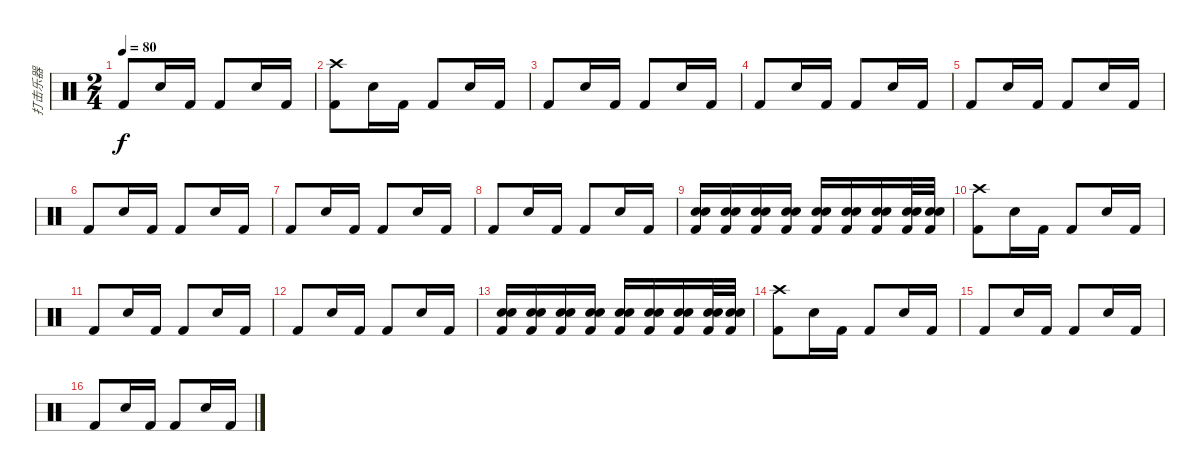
\track ("打击乐器" "打击乐器") {instrument percussion}
\staff {score}
\articulation defaults
\ts (2 4)
\tempo 80
\clef neutral
\ks c "Kick (hit) 2".8{dy f} "Electric Snare (hit)".16 "Kick (hit) 2".16 "Kick (hit) 2".8 "Electric Snare (hit)".16 "Kick (hit) 2".16
|
("Crash high (hit)" "Kick (hit) 2").8 "Electric Snare (hit)".16 "Kick (hit) 2".16 "Kick (hit) 2".8 "Electric Snare (hit)".16 "Kick (hit) 2".16 |
"Kick (hit) 2".8 "Electric Snare (hit)".16 "Kick (hit) 2".16 "Kick (hit) 2".8 "Electric Snare (hit)".16 "Kick (hit) 2".16 |
"Kick (hit) 2".8 "Electric Snare (hit)".16 "Kick (hit) 2".16 "Kick (hit) 2".8 "Electric Snare (hit)".16 "Kick (hit) 2".16 |
"Kick (hit) 2".8 "Electric Snare (hit)".16 "Kick (hit) 2".16 "Kick (hit) 2".8 "Electric Snare (hit)".16 "Kick (hit) 2".16 |
"Kick (hit) 2".8 "Electric Snare (hit)".16 "Kick (hit) 2".16 "Kick (hit) 2".8 "Electric Snare (hit)".16 "Kick (hit) 2".16 |
"Kick (hit) 2".8 "Electric Snare (hit)".16 "Kick (hit) 2".16 "Kick (hit) 2".8 "Electric Snare (hit)".16 "Kick (hit) 2".16 |
"Kick (hit) 2".8 "Electric Snare (hit)".16 "Kick (hit) 2".16 "Kick (hit) 2".8 "Electric Snare (hit)".16 "Kick (hit) 2".16 |
("Electric Snare (hit)" "Electric Snare (hit)" "Kick (hit) 2").16 ("Electric Snare (hit)" "Electric Snare (hit)" "Kick (hit) 2").16 ("Electric Snare (hit)" "Electric Snare (hit)" "Kick (hit) 2").16 ("Electric Snare (hit)" "Electric Snare (hit)" "Kick (hit) 2").16 ("Electric Snare (hit)" "Electric Snare (hit)" "Kick (hit) 2").16 ("Electric Snare (hit)" "Electric Snare (hit)" "Kick (hit) 2").16 ("Electric Snare (hit)" "Electric Snare (hit)" "Kick (hit) 2").16 ("Electric Snare (hit)" "Electric Snare (hit)" "Kick (hit) 2").32 ("Electric Snare (hit)" "Electric Snare (hit)" "Kick (hit) 2").32 |
("Crash high (hit)" "Kick (hit) 2").8 "Electric Snare (hit)".16 "Kick (hit) 2".16 "Kick (hit) 2".8 "Electric Snare (hit)".16 "Kick (hit) 2".16 |
"Kick (hit) 2".8 "Electric Snare (hit)".16 "Kick (hit) 2".16 "Kick (hit) 2".8 "Electric Snare (hit)".16 "Kick (hit) 2".16 |
"Kick (hit) 2".8 "Electric Snare (hit)".16 "Kick (hit) 2".16 "Kick (hit) 2".8 "Electric Snare (hit)".16 "Kick (hit) 2".16 |
("Electric Snare (hit)" "Electric Snare (hit)" "Kick (hit) 2").16 ("Electric Snare (hit)" "Electric Snare (hit)" "Kick (hit) 2").16 ("Electric Snare (hit)" "Electric Snare (hit)" "Kick (hit) 2").16 ("Electric Snare (hit)" "Electric Snare (hit)" "Kick (hit) 2").16 ("Electric Snare (hit)" "Electric Snare (hit)" "Kick (hit) 2").16 ("Electric Snare (hit)" "Electric Snare (hit)" "Kick (hit) 2").16 ("Electric Snare (hit)" "Electric Snare (hit)" "Kick (hit) 2").16 ("Electric Snare (hit)" "Electric Snare (hit)" "Kick (hit) 2").32 ("Electric Snare (hit)" "Electric Snare (hit)" "Kick (hit) 2").32 |
("Crash high (hit)" "Kick (hit) 2").8 "Electric Snare (hit)".16 "Kick (hit) 2".16 "Kick (hit) 2".8 "Electric Snare (hit)".16 "Kick (hit) 2".16 |
"Kick (hit) 2".8 "Electric Snare (hit)".16 "Kick (hit) 2".16 "Kick (hit) 2".8 "Electric Snare (hit)".16 "Kick (hit) 2".16 |
"Kick (hit) 2".8 "Electric Snare (hit)".16 "Kick (hit) 2".16 "Kick (hit) 2".8 "Electric Snare (hit)".16 "Kick (hit) 2".16
